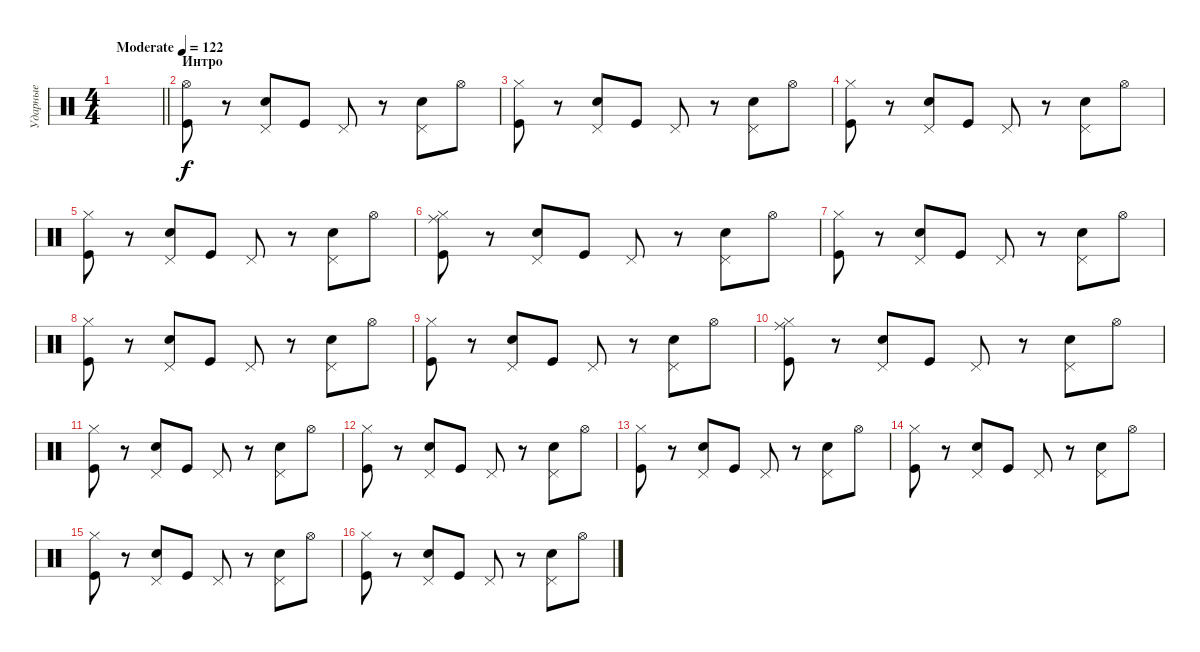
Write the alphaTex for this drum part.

\track ("Ударные" "Ударные") {instrument percussion}
\staff {score}
\articulation defaults
\ts (4 4)
\tempo (122 "Moderate")
\clef neutral
\barLineRight lightlight
\ks c
|
\section ("" "Интро")
("Hi-Hat (open)" "Kick (hit)").8 r.8 ("Pedal Hi-Hat (hit)" "Snare (hit) 2").8 "Kick (hit)".8 "Pedal Hi-Hat (hit)".8 r.8 ("Pedal Hi-Hat (hit)" "Snare (hit) 2").8 "Hi-Hat (open)".8 |
("Hi-Hat (closed)" "Kick (hit)").8 r.8 ("Pedal Hi-Hat (hit)" "Snare (hit) 2").8 "Kick (hit)".8 "Pedal Hi-Hat (hit)".8 r.8 ("Pedal Hi-Hat (hit)" "Snare (hit) 2").8 "Hi-Hat (open)".8 |
("Hi-Hat (closed)" "Kick (hit)").8 r.8 ("Pedal Hi-Hat (hit)" "Snare (hit) 2").8 "Kick (hit)".8 "Pedal Hi-Hat (hit)".8 r.8 ("Pedal Hi-Hat (hit)" "Snare (hit) 2").8 "Hi-Hat (open)".8 |
("Hi-Hat (closed)" "Kick (hit)").8 r.8 ("Pedal Hi-Hat (hit)" "Snare (hit) 2").8 "Kick (hit)".8 "Pedal Hi-Hat (hit)".8 r.8 ("Pedal Hi-Hat (hit)" "Snare (hit) 2").8 "Hi-Hat (open)".8 |
("Hi-Hat (closed)" "Ride (middle)" "Kick (hit)").8 r.8 ("Pedal Hi-Hat (hit)" "Snare (hit) 2").8 "Kick (hit)".8 "Pedal Hi-Hat (hit)".8 r.8 ("Pedal Hi-Hat (hit)" "Snare (hit) 2").8 "Hi-Hat (open)".8 |
("Hi-Hat (closed)" "Kick (hit)").8 r.8 ("Pedal Hi-Hat (hit)" "Snare (hit) 2").8 "Kick (hit)".8 "Pedal Hi-Hat (hit)".8 r.8 ("Pedal Hi-Hat (hit)" "Snare (hit) 2").8 "Hi-Hat (open)".8 |
("Hi-Hat (closed)" "Kick (hit)").8 r.8 ("Pedal Hi-Hat (hit)" "Snare (hit) 2").8 "Kick (hit)".8 "Pedal Hi-Hat (hit)".8 r.8 ("Pedal Hi-Hat (hit)" "Snare (hit) 2").8 "Hi-Hat (open)".8 |
("Hi-Hat (closed)" "Kick (hit)").8 r.8 ("Pedal Hi-Hat (hit)" "Snare (hit) 2").8 "Kick (hit)".8 "Pedal Hi-Hat (hit)".8 r.8 ("Pedal Hi-Hat (hit)" "Snare (hit) 2").8 "Hi-Hat (open)".8 |
("Hi-Hat (closed)" "Ride (middle)" "Kick (hit)").8 r.8 ("Pedal Hi-Hat (hit)" "Snare (hit) 2").8 "Kick (hit)".8 "Pedal Hi-Hat (hit)".8 r.8 ("Pedal Hi-Hat (hit)" "Snare (hit) 2").8 "Hi-Hat (open)".8 |
("Hi-Hat (closed)" "Kick (hit)").8 r.8 ("Pedal Hi-Hat (hit)" "Snare (hit) 2").8 "Kick (hit)".8 "Pedal Hi-Hat (hit)".8 r.8 ("Pedal Hi-Hat (hit)" "Snare (hit) 2").8 "Hi-Hat (open)".8 |
("Hi-Hat (closed)" "Kick (hit)").8 r.8 ("Pedal Hi-Hat (hit)" "Snare (hit) 2").8 "Kick (hit)".8 "Pedal Hi-Hat (hit)".8 r.8 ("Pedal Hi-Hat (hit)" "Snare (hit) 2").8 "Hi-Hat (open)".8 |
("Hi-Hat (closed)" "Kick (hit)").8 r.8 ("Pedal Hi-Hat (hit)" "Snare (hit) 2").8 "Kick (hit)".8 "Pedal Hi-Hat (hit)".8 r.8 ("Pedal Hi-Hat (hit)" "Snare (hit) 2").8 "Hi-Hat (open)".8 |
("Hi-Hat (closed)" "Kick (hit)").8 r.8 ("Pedal Hi-Hat (hit)" "Snare (hit) 2").8 "Kick (hit)".8 "Pedal Hi-Hat (hit)".8 r.8 ("Pedal Hi-Hat (hit)" "Snare (hit) 2").8 "Hi-Hat (open)".8 |
("Hi-Hat (closed)" "Kick (hit)").8 r.8 ("Pedal Hi-Hat (hit)" "Snare (hit) 2").8 "Kick (hit)".8 "Pedal Hi-Hat (hit)".8 r.8 ("Pedal Hi-Hat (hit)" "Snare (hit) 2").8 "Hi-Hat (open)".8 |
("Hi-Hat (closed)" "Kick (hit)").8 r.8 ("Pedal Hi-Hat (hit)" "Snare (hit) 2").8 "Kick (hit)".8 "Pedal Hi-Hat (hit)".8 r.8 ("Pedal Hi-Hat (hit)" "Snare (hit) 2").8 "Hi-Hat (open)".8
